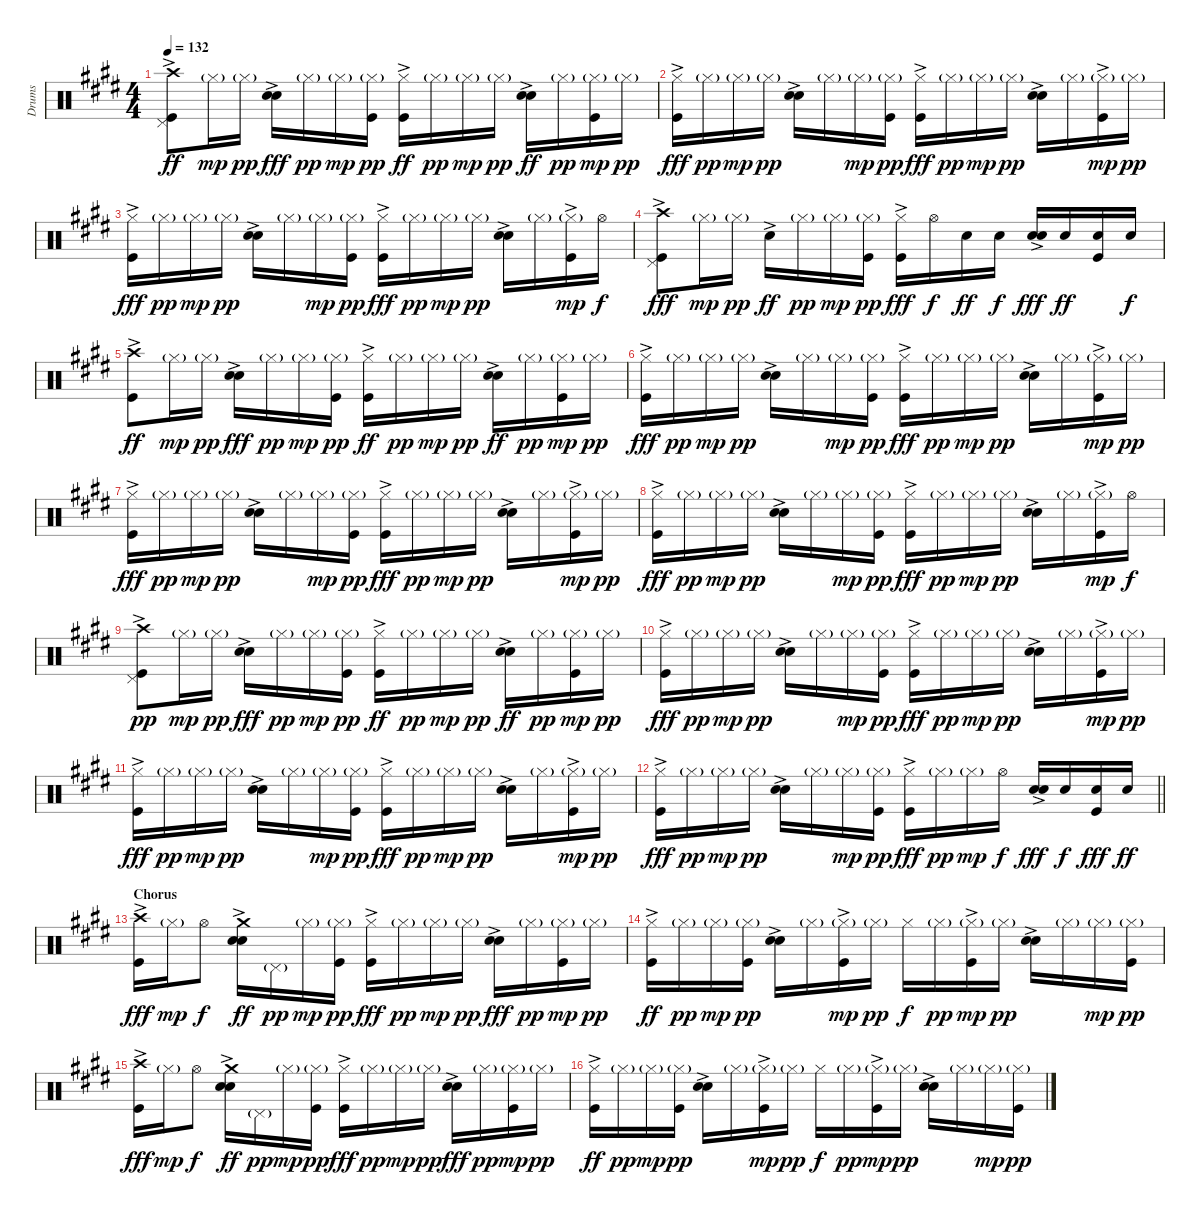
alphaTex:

\track ("Drums" "Drums") {instrument percussion}
\staff {score}
\articulation defaults
\ts (4 4)
\tempo 132
\clef neutral
\ks e
("Kick (hit)"{ac} "Crash high (hit)" "Pedal Hi-Hat (hit)").8{dy ff} "Hi-Hat (closed)"{g}.16{dy mp} "Hi-Hat (closed)"{g}.16{dy pp} ("Snare (hit) 2"{ac} "Electric Snare (hit)").16{dy fff} "Hi-Hat (closed)"{g}.16{dy pp} "Hi-Hat (closed)"{g}.16{dy mp} ("Kick (hit)" "Hi-Hat (closed)"{g}).16{dy pp} ("Kick (hit)"{ac} "Hi-Hat (closed)").16{dy ff} "Hi-Hat (closed)"{g}.16{dy pp} "Hi-Hat (closed)"{g}.16{dy mp} "Hi-Hat (closed)"{g}.16{dy pp} ("Snare (hit) 2"{ac} "Electric Snare (hit)").16{dy ff} "Hi-Hat (closed)"{g}.16{dy pp} ("Kick (hit)" "Hi-Hat (closed)"{g}).16{dy mp} "Hi-Hat (closed)"{g}.16{dy pp} |
("Kick (hit)"{ac} "Hi-Hat (closed)").16{dy fff} "Hi-Hat (closed)"{g}.16{dy pp} "Hi-Hat (closed)"{g}.16{dy mp} "Hi-Hat (closed)"{g}.16{dy pp} ("Snare (hit) 2"{ac} "Electric Snare (hit)").16 "Hi-Hat (closed)"{g}.16 "Hi-Hat (closed)"{g}.16{dy mp} ("Kick (hit)" "Hi-Hat (closed)"{g}).16{dy pp} ("Kick (hit)"{ac} "Hi-Hat (closed)").16{dy fff} "Hi-Hat (closed)"{g}.16{dy pp} "Hi-Hat (closed)"{g}.16{dy mp} "Hi-Hat (closed)"{g}.16{dy pp} ("Snare (hit) 2"{ac} "Electric Snare (hit)").16 "Hi-Hat (closed)"{g}.16 ("Kick (hit)"{ac} "Hi-Hat (closed)"{g}).16{dy mp} "Hi-Hat (closed)"{g}.16{dy pp} |
("Kick (hit)"{ac} "Hi-Hat (closed)").16{dy fff} "Hi-Hat (closed)"{g}.16{dy pp} "Hi-Hat (closed)"{g}.16{dy mp} "Hi-Hat (closed)"{g}.16{dy pp} ("Snare (hit) 2"{ac} "Electric Snare (hit)").16 "Hi-Hat (closed)"{g}.16 "Hi-Hat (closed)"{g}.16{dy mp} ("Kick (hit)" "Hi-Hat (closed)"{g}).16{dy pp} ("Kick (hit)"{ac} "Hi-Hat (closed)").16{dy fff} "Hi-Hat (closed)"{g}.16{dy pp} "Hi-Hat (closed)"{g}.16{dy mp} "Hi-Hat (closed)"{g}.16{dy pp} ("Snare (hit) 2"{ac} "Electric Snare (hit)").16 "Hi-Hat (closed)"{g}.16 ("Kick (hit)"{ac} "Hi-Hat (closed)"{g}).16{dy mp} "Hi-Hat (open)".16{dy f} |
("Kick (hit)"{ac} "Crash high (hit)" "Pedal Hi-Hat (hit)").8{dy fff} "Hi-Hat (closed)"{g}.16{dy mp} "Hi-Hat (closed)"{g}.16{dy pp} "Snare (hit) 2"{ac}.16{dy ff} "Hi-Hat (closed)"{g}.16{dy pp} "Hi-Hat (closed)"{g}.16{dy mp} ("Kick (hit)" "Hi-Hat (closed)"{g}).16{dy pp} ("Kick (hit)"{ac} "Hi-Hat (closed)").16{dy fff} "Hi-Hat (open)".16{dy f} "Snare (hit) 2".16{dy ff} "Snare (hit) 2".16{dy f} ("Snare (hit) 2"{ac} "Electric Snare (hit)").16{dy fff} "Snare (hit) 2".16{dy ff} ("Kick (hit)" "Snare (hit) 2").16 "Snare (hit) 2".16{dy f} |
("Kick (hit)"{ac} "Crash high (hit)").8{dy ff} "Hi-Hat (closed)"{g}.16{dy mp} "Hi-Hat (closed)"{g}.16{dy pp} ("Snare (hit) 2"{ac} "Electric Snare (hit)").16{dy fff} "Hi-Hat (closed)"{g}.16{dy pp} "Hi-Hat (closed)"{g}.16{dy mp} ("Kick (hit)" "Hi-Hat (closed)"{g}).16{dy pp} ("Kick (hit)"{ac} "Hi-Hat (closed)").16{dy ff} "Hi-Hat (closed)"{g}.16{dy pp} "Hi-Hat (closed)"{g}.16{dy mp} "Hi-Hat (closed)"{g}.16{dy pp} ("Snare (hit) 2"{ac} "Electric Snare (hit)").16{dy ff} "Hi-Hat (closed)"{g}.16{dy pp} ("Kick (hit)" "Hi-Hat (closed)"{g}).16{dy mp} "Hi-Hat (closed)"{g}.16{dy pp} |
("Kick (hit)"{ac} "Hi-Hat (closed)").16{dy fff} "Hi-Hat (closed)"{g}.16{dy pp} "Hi-Hat (closed)"{g}.16{dy mp} "Hi-Hat (closed)"{g}.16{dy pp} ("Snare (hit) 2"{ac} "Electric Snare (hit)").16 "Hi-Hat (closed)"{g}.16 "Hi-Hat (closed)"{g}.16{dy mp} ("Kick (hit)" "Hi-Hat (closed)"{g}).16{dy pp} ("Kick (hit)"{ac} "Hi-Hat (closed)").16{dy fff} "Hi-Hat (closed)"{g}.16{dy pp} "Hi-Hat (closed)"{g}.16{dy mp} "Hi-Hat (closed)"{g}.16{dy pp} ("Snare (hit) 2"{ac} "Electric Snare (hit)").16 "Hi-Hat (closed)"{g}.16 ("Kick (hit)"{ac} "Hi-Hat (closed)"{g}).16{dy mp} "Hi-Hat (closed)"{g}.16{dy pp} |
("Kick (hit)"{ac} "Hi-Hat (closed)").16{dy fff} "Hi-Hat (closed)"{g}.16{dy pp} "Hi-Hat (closed)"{g}.16{dy mp} "Hi-Hat (closed)"{g}.16{dy pp} ("Snare (hit) 2"{ac} "Electric Snare (hit)").16 "Hi-Hat (closed)"{g}.16 "Hi-Hat (closed)"{g}.16{dy mp} ("Kick (hit)" "Hi-Hat (closed)"{g}).16{dy pp} ("Kick (hit)"{ac} "Hi-Hat (closed)").16{dy fff} "Hi-Hat (closed)"{g}.16{dy pp} "Hi-Hat (closed)"{g}.16{dy mp} "Hi-Hat (closed)"{g}.16{dy pp} ("Snare (hit) 2"{ac} "Electric Snare (hit)").16 "Hi-Hat (closed)"{g}.16 ("Kick (hit)"{ac} "Hi-Hat (closed)"{g}).16{dy mp} "Hi-Hat (closed)"{g}.16{dy pp} |
("Kick (hit)"{ac} "Hi-Hat (closed)").16{dy fff} "Hi-Hat (closed)"{g}.16{dy pp} "Hi-Hat (closed)"{g}.16{dy mp} "Hi-Hat (closed)"{g}.16{dy pp} ("Snare (hit) 2"{ac} "Electric Snare (hit)").16 "Hi-Hat (closed)"{g}.16 "Hi-Hat (closed)"{g}.16{dy mp} ("Kick (hit)" "Hi-Hat (closed)"{g}).16{dy pp} ("Kick (hit)"{ac} "Hi-Hat (closed)").16{dy fff} "Hi-Hat (closed)"{g}.16{dy pp} "Hi-Hat (closed)"{g}.16{dy mp} "Hi-Hat (closed)"{g}.16{dy pp} ("Snare (hit) 2"{ac} "Electric Snare (hit)").16 "Hi-Hat (closed)"{g}.16 ("Kick (hit)"{ac} "Hi-Hat (closed)"{g}).16{dy mp} "Hi-Hat (open)".16{dy f} |
("Kick (hit)"{ac} "Crash high (hit)" "Pedal Hi-Hat (hit)").8{dy pp} "Hi-Hat (closed)"{g}.16{dy mp} "Hi-Hat (closed)"{g}.16{dy pp} ("Snare (hit) 2"{ac} "Electric Snare (hit)").16{dy fff} "Hi-Hat (closed)"{g}.16{dy pp} "Hi-Hat (closed)"{g}.16{dy mp} ("Kick (hit)" "Hi-Hat (closed)"{g}).16{dy pp} ("Kick (hit)"{ac} "Hi-Hat (closed)").16{dy ff} "Hi-Hat (closed)"{g}.16{dy pp} "Hi-Hat (closed)"{g}.16{dy mp} "Hi-Hat (closed)"{g}.16{dy pp} ("Snare (hit) 2"{ac} "Electric Snare (hit)").16{dy ff} "Hi-Hat (closed)"{g}.16{dy pp} ("Kick (hit)" "Hi-Hat (closed)"{g}).16{dy mp} "Hi-Hat (closed)"{g}.16{dy pp} |
("Kick (hit)"{ac} "Hi-Hat (closed)").16{dy fff} "Hi-Hat (closed)"{g}.16{dy pp} "Hi-Hat (closed)"{g}.16{dy mp} "Hi-Hat (closed)"{g}.16{dy pp} ("Snare (hit) 2"{ac} "Electric Snare (hit)").16 "Hi-Hat (closed)"{g}.16 "Hi-Hat (closed)"{g}.16{dy mp} ("Kick (hit)" "Hi-Hat (closed)"{g}).16{dy pp} ("Kick (hit)"{ac} "Hi-Hat (closed)").16{dy fff} "Hi-Hat (closed)"{g}.16{dy pp} "Hi-Hat (closed)"{g}.16{dy mp} "Hi-Hat (closed)"{g}.16{dy pp} ("Snare (hit) 2"{ac} "Electric Snare (hit)").16 "Hi-Hat (closed)"{g}.16 ("Kick (hit)"{ac} "Hi-Hat (closed)"{g}).16{dy mp} "Hi-Hat (closed)"{g}.16{dy pp} |
("Kick (hit)"{ac} "Hi-Hat (closed)").16{dy fff} "Hi-Hat (closed)"{g}.16{dy pp} "Hi-Hat (closed)"{g}.16{dy mp} "Hi-Hat (closed)"{g}.16{dy pp} ("Snare (hit) 2"{ac} "Electric Snare (hit)").16 "Hi-Hat (closed)"{g}.16 "Hi-Hat (closed)"{g}.16{dy mp} ("Kick (hit)" "Hi-Hat (closed)"{g}).16{dy pp} ("Kick (hit)"{ac} "Hi-Hat (closed)").16{dy fff} "Hi-Hat (closed)"{g}.16{dy pp} "Hi-Hat (closed)"{g}.16{dy mp} "Hi-Hat (closed)"{g}.16{dy pp} ("Snare (hit) 2"{ac} "Electric Snare (hit)").16 "Hi-Hat (closed)"{g}.16 ("Kick (hit)"{ac} "Hi-Hat (closed)"{g}).16{dy mp} "Hi-Hat (closed)"{g}.16{dy pp} |
\barLineRight lightlight
("Kick (hit)"{ac} "Hi-Hat (closed)").16{dy fff} "Hi-Hat (closed)"{g}.16{dy pp} "Hi-Hat (closed)"{g}.16{dy mp} "Hi-Hat (closed)"{g}.16{dy pp} ("Snare (hit) 2"{ac} "Electric Snare (hit)").16 "Hi-Hat (closed)"{g}.16 "Hi-Hat (closed)"{g}.16{dy mp} ("Kick (hit)" "Hi-Hat (closed)"{g}).16{dy pp} ("Kick (hit)"{ac} "Hi-Hat (closed)").16{dy fff} "Hi-Hat (closed)"{g}.16{dy pp} "Hi-Hat (closed)"{g}.16{dy mp} "Hi-Hat (open)".16{dy f} ("Snare (hit) 2"{ac} "Electric Snare (hit)").16{dy fff} "Snare (hit) 2".16{dy f} ("Kick (hit)" "Snare (hit) 2").16{dy fff} "Snare (hit) 2".16{dy ff} |
\section ("" "Chorus")
("Kick (hit)"{ac} "Crash high (hit)").16{dy fff} "Hi-Hat (closed)"{g}.16{dy mp} "Hi-Hat (open)".8{dy f} ("Snare (hit) 2"{ac} "Electric Snare (hit)" "Crash medium (hit)").16{dy ff} "Pedal Hi-Hat (hit)"{g}.16{dy pp} "Hi-Hat (closed)"{g}.16{dy mp} ("Kick (hit)" "Hi-Hat (closed)"{g}).16{dy pp} ("Kick (hit)"{ac} "Hi-Hat (closed)").16{dy fff} "Hi-Hat (closed)"{g}.16{dy pp} "Hi-Hat (closed)"{g}.16{dy mp} "Hi-Hat (closed)"{g}.16{dy pp} ("Snare (hit) 2"{ac} "Electric Snare (hit)").16{dy fff} "Hi-Hat (closed)"{g}.16{dy pp} ("Kick (hit)" "Hi-Hat (closed)"{g}).16{dy mp} "Hi-Hat (closed)"{g}.16{dy pp} |
("Kick (hit)"{ac} "Hi-Hat (closed)").16{dy ff} "Hi-Hat (closed)"{g}.16{dy pp} "Hi-Hat (closed)"{g}.16{dy mp} ("Kick (hit)" "Hi-Hat (closed)"{g}).16{dy pp} ("Snare (hit) 2"{ac} "Electric Snare (hit)").16 "Hi-Hat (closed)"{g}.16 ("Kick (hit)"{ac} "Hi-Hat (closed)"{g}).16{dy mp} "Hi-Hat (closed)"{g}.16{dy pp} "Hi-Hat (closed)".16{dy f} "Hi-Hat (closed)"{g}.16{dy pp} ("Kick (hit)"{ac} "Hi-Hat (closed)"{g}).16{dy mp} "Hi-Hat (closed)"{g}.16{dy pp} ("Snare (hit) 2"{ac} "Electric Snare (hit)").16 "Hi-Hat (closed)"{g}.16 "Hi-Hat (closed)"{g}.16{dy mp} ("Kick (hit)" "Hi-Hat (closed)"{g}).16{dy pp} |
("Kick (hit)"{ac} "Crash high (hit)").16{dy fff} "Hi-Hat (closed)"{g}.16{dy mp} "Hi-Hat (open)".8{dy f} ("Snare (hit) 2"{ac} "Electric Snare (hit)" "Crash medium (hit)").16{dy ff} "Pedal Hi-Hat (hit)"{g}.16{dy pp} "Hi-Hat (closed)"{g}.16{dy mp} ("Kick (hit)" "Hi-Hat (closed)"{g}).16{dy pp} ("Kick (hit)"{ac} "Hi-Hat (closed)").16{dy fff} "Hi-Hat (closed)"{g}.16{dy pp} "Hi-Hat (closed)"{g}.16{dy mp} "Hi-Hat (closed)"{g}.16{dy pp} ("Snare (hit) 2"{ac} "Electric Snare (hit)").16{dy fff} "Hi-Hat (closed)"{g}.16{dy pp} ("Kick (hit)" "Hi-Hat (closed)"{g}).16{dy mp} "Hi-Hat (closed)"{g}.16{dy pp} |
("Kick (hit)"{ac} "Hi-Hat (closed)").16{dy ff} "Hi-Hat (closed)"{g}.16{dy pp} "Hi-Hat (closed)"{g}.16{dy mp} ("Kick (hit)" "Hi-Hat (closed)"{g}).16{dy pp} ("Snare (hit) 2"{ac} "Electric Snare (hit)").16 "Hi-Hat (closed)"{g}.16 ("Kick (hit)"{ac} "Hi-Hat (closed)"{g}).16{dy mp} "Hi-Hat (closed)"{g}.16{dy pp} "Hi-Hat (closed)".16{dy f} "Hi-Hat (closed)"{g}.16{dy pp} ("Kick (hit)"{ac} "Hi-Hat (closed)"{g}).16{dy mp} "Hi-Hat (closed)"{g}.16{dy pp} ("Snare (hit) 2"{ac} "Electric Snare (hit)").16 "Hi-Hat (closed)"{g}.16 "Hi-Hat (closed)"{g}.16{dy mp} ("Kick (hit)" "Hi-Hat (closed)"{g}).16{dy pp}
